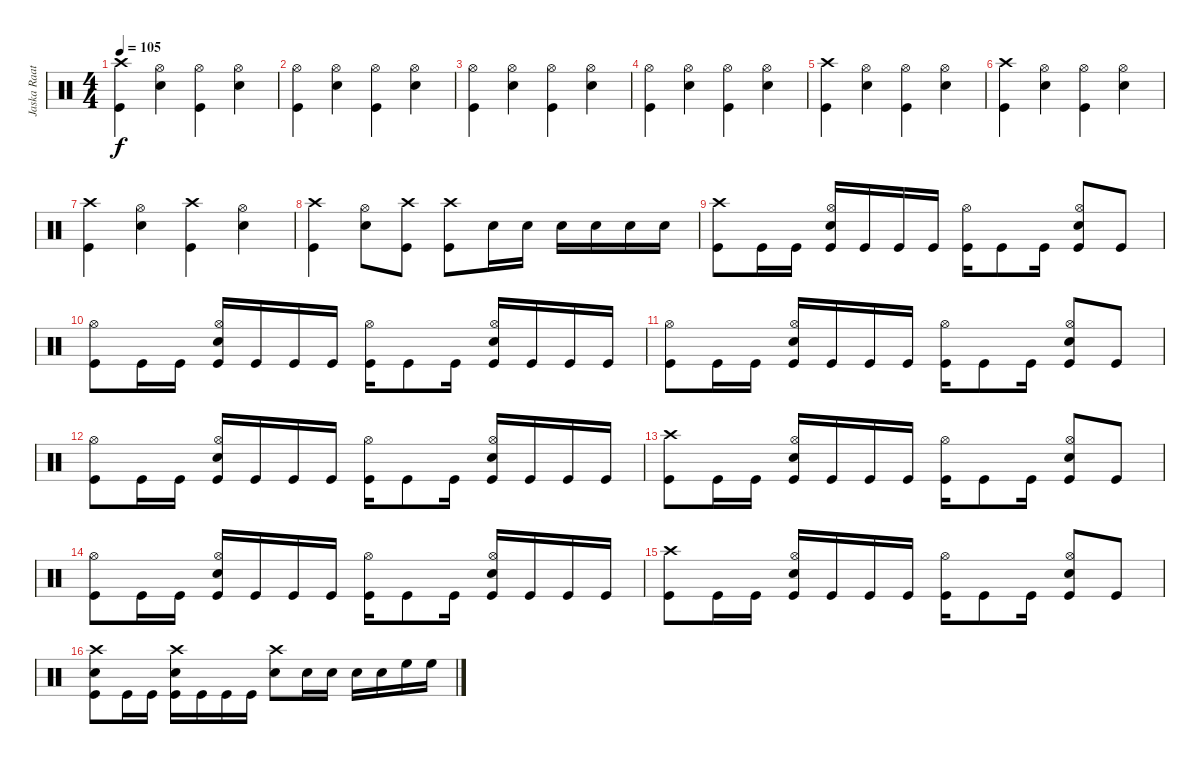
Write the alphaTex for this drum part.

\track ("Jaska Raatikainen" "Jaska Raat") {instrument percussion}
\staff {score}
\articulation defaults
\ts (4 4)
\tempo 105
\clef neutral
\ks c
("Crash high (hit)" "Kick (hit)").4{dy f} ("Hi-Hat (open)" "Snare (hit) 2").4 ("Hi-Hat (open)" "Kick (hit)").4 ("Hi-Hat (open)" "Snare (hit) 2").4 |
("Hi-Hat (open)" "Kick (hit)").4 ("Hi-Hat (open)" "Snare (hit) 2").4 ("Hi-Hat (open)" "Kick (hit)").4 ("Hi-Hat (open)" "Snare (hit) 2").4 |
("Hi-Hat (open)" "Kick (hit)").4 ("Hi-Hat (open)" "Snare (hit) 2").4 ("Hi-Hat (open)" "Kick (hit)").4 ("Hi-Hat (open)" "Snare (hit) 2").4 |
("Hi-Hat (open)" "Kick (hit)").4 ("Hi-Hat (open)" "Snare (hit) 2").4 ("Hi-Hat (open)" "Kick (hit)").4 ("Hi-Hat (open)" "Snare (hit) 2").4 |
("Crash high (hit)" "Kick (hit)").4 ("Hi-Hat (open)" "Snare (hit) 2").4 ("Hi-Hat (open)" "Kick (hit)").4 ("Hi-Hat (open)" "Snare (hit) 2").4 |
("Crash high (hit)" "Kick (hit)").4 ("Hi-Hat (open)" "Snare (hit) 2").4 ("Hi-Hat (open)" "Kick (hit)").4 ("Hi-Hat (open)" "Snare (hit) 2").4 |
("Crash high (hit)" "Kick (hit)").4 ("Hi-Hat (open)" "Snare (hit) 2").4 ("Crash high (hit)" "Kick (hit)").4 ("Hi-Hat (open)" "Snare (hit) 2").4 |
("Crash high (hit)" "Kick (hit)").4 ("Hi-Hat (open)" "Snare (hit) 2").8 ("Crash high (hit)" "Kick (hit)").8 ("Crash high (hit)" "Kick (hit)").8 "Snare (hit) 2".16 "Snare (hit) 2".16 "Snare (hit) 2".16 "Snare (hit) 2".16 "Snare (hit) 2".16 "Snare (hit) 2".16 |
("Crash high (hit)" "Kick (hit)").8 "Kick (hit)".16 "Kick (hit)".16 ("Hi-Hat (open)" "Snare (hit) 2" "Kick (hit)").16 "Kick (hit)".16 "Kick (hit)".16 "Kick (hit)".16 ("Hi-Hat (open)" "Kick (hit)").16 "Kick (hit)".8 "Kick (hit)".16 ("Hi-Hat (open)" "Snare (hit) 2" "Kick (hit)").8 "Kick (hit)".8 |
("Hi-Hat (open)" "Kick (hit)").8 "Kick (hit)".16 "Kick (hit)".16 ("Hi-Hat (open)" "Snare (hit) 2" "Kick (hit)").16 "Kick (hit)".16 "Kick (hit)".16 "Kick (hit)".16 ("Hi-Hat (open)" "Kick (hit)").16 "Kick (hit)".8 "Kick (hit)".16 ("Hi-Hat (open)" "Snare (hit) 2" "Kick (hit)").16 "Kick (hit)".16 "Kick (hit)".16 "Kick (hit)".16 |
("Hi-Hat (open)" "Kick (hit)").8 "Kick (hit)".16 "Kick (hit)".16 ("Hi-Hat (open)" "Snare (hit) 2" "Kick (hit)").16 "Kick (hit)".16 "Kick (hit)".16 "Kick (hit)".16 ("Hi-Hat (open)" "Kick (hit)").16 "Kick (hit)".8 "Kick (hit)".16 ("Hi-Hat (open)" "Snare (hit) 2" "Kick (hit)").8 "Kick (hit)".8 |
("Hi-Hat (open)" "Kick (hit)").8 "Kick (hit)".16 "Kick (hit)".16 ("Hi-Hat (open)" "Snare (hit) 2" "Kick (hit)").16 "Kick (hit)".16 "Kick (hit)".16 "Kick (hit)".16 ("Hi-Hat (open)" "Kick (hit)").16 "Kick (hit)".8 "Kick (hit)".16 ("Hi-Hat (open)" "Snare (hit) 2" "Kick (hit)").16 "Kick (hit)".16 "Kick (hit)".16 "Kick (hit)".16 |
("Crash high (hit)" "Kick (hit)").8 "Kick (hit)".16 "Kick (hit)".16 ("Hi-Hat (open)" "Snare (hit) 2" "Kick (hit)").16 "Kick (hit)".16 "Kick (hit)".16 "Kick (hit)".16 ("Hi-Hat (open)" "Kick (hit)").16 "Kick (hit)".8 "Kick (hit)".16 ("Hi-Hat (open)" "Snare (hit) 2" "Kick (hit)").8 "Kick (hit)".8 |
("Hi-Hat (open)" "Kick (hit)").8 "Kick (hit)".16 "Kick (hit)".16 ("Hi-Hat (open)" "Snare (hit) 2" "Kick (hit)").16 "Kick (hit)".16 "Kick (hit)".16 "Kick (hit)".16 ("Hi-Hat (open)" "Kick (hit)").16 "Kick (hit)".8 "Kick (hit)".16 ("Hi-Hat (open)" "Snare (hit) 2" "Kick (hit)").16 "Kick (hit)".16 "Kick (hit)".16 "Kick (hit)".16 |
("Crash high (hit)" "Kick (hit)").8 "Kick (hit)".16 "Kick (hit)".16 ("Hi-Hat (open)" "Snare (hit) 2" "Kick (hit)").16 "Kick (hit)".16 "Kick (hit)".16 "Kick (hit)".16 ("Hi-Hat (open)" "Kick (hit)").16 "Kick (hit)".8 "Kick (hit)".16 ("Hi-Hat (open)" "Snare (hit) 2" "Kick (hit)").8 "Kick (hit)".8 |
("Crash high (hit)" "Snare (hit) 2" "Kick (hit)").8 "Kick (hit)".16 "Kick (hit)".16 ("Crash high (hit)" "Snare (hit) 2" "Kick (hit)").16 "Kick (hit)".16 "Kick (hit)".16 "Kick (hit)".16 ("Crash high (hit)" "Snare (hit) 2").8 "Snare (hit) 2".16 "Snare (hit) 2".16 "Snare (hit) 2".16 "Snare (hit) 2".16 "High Floor Tom (hit)".16 "High Floor Tom (hit)".16
